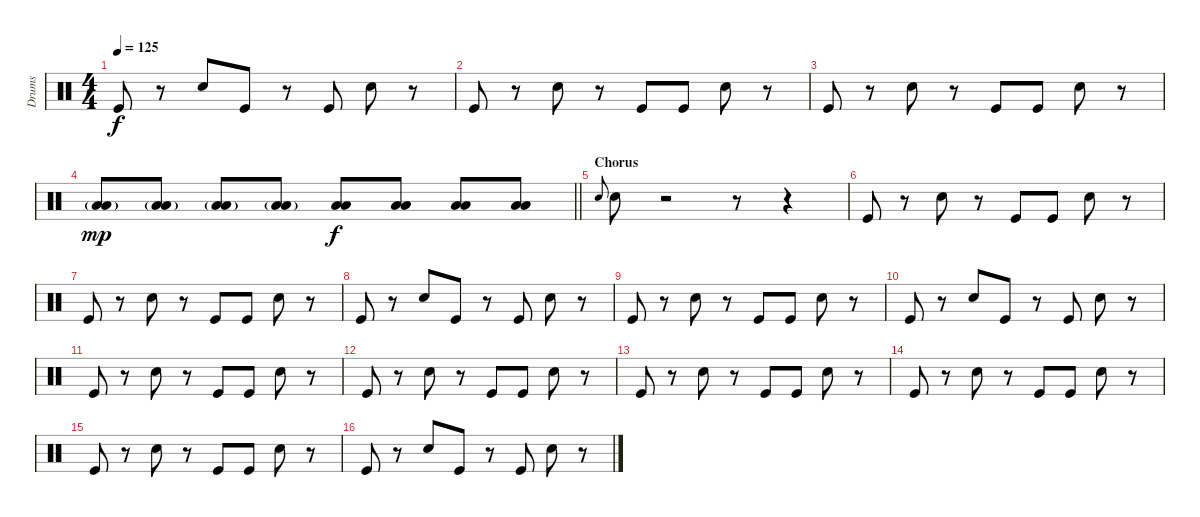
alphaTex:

\track ("Drums" "Drums") {instrument percussion}
\staff {score}
\articulation defaults
\ts (4 4)
\tempo 125
\clef neutral
\ks c "Kick (hit)".8{dy f}
r.8 "Snare (hit) 2".8 "Kick (hit)".8 r.8 "Kick (hit)".8 "Snare (hit) 2".8 r.8 |
"Kick (hit)".8 r.8 "Snare (hit) 2".8 r.8 "Kick (hit)".8 "Kick (hit)".8 "Snare (hit) 2".8 r.8 |
"Kick (hit)".8 r.8 "Snare (hit) 2".8 r.8 "Kick (hit)".8 "Kick (hit)".8 "Snare (hit) 2".8 r.8 |
\barLineRight lightlight
("Low Floor Tom (hit)"{g} "Low Tom (hit)"{g}).8{dy mp} ("Low Floor Tom (hit)"{g} "Low Tom (hit)"{g}).8 ("Low Floor Tom (hit)"{g} "Low Tom (hit)"{g}).8 ("Low Floor Tom (hit)"{g} "Low Tom (hit)"{g}).8 ("Low Floor Tom (hit)" "Low Tom (hit)").8{dy f} ("Low Floor Tom (hit)" "Low Tom (hit)").8 ("Low Floor Tom (hit)" "Low Tom (hit)").8 ("Low Floor Tom (hit)" "Low Tom (hit)").8 |
\section ("" "Chorus")
"Snare (hit) 2".8{gr onbeat} "Snare (hit) 2".8 r.2 r.8 r.4 |
"Kick (hit)".8 r.8 "Snare (hit) 2".8 r.8 "Kick (hit)".8 "Kick (hit)".8 "Snare (hit) 2".8 r.8 |
"Kick (hit)".8 r.8 "Snare (hit) 2".8 r.8 "Kick (hit)".8 "Kick (hit)".8 "Snare (hit) 2".8 r.8 |
"Kick (hit)".8 r.8 "Snare (hit) 2".8 "Kick (hit)".8 r.8 "Kick (hit)".8 "Snare (hit) 2".8 r.8 |
"Kick (hit)".8 r.8 "Snare (hit) 2".8 r.8 "Kick (hit)".8 "Kick (hit)".8 "Snare (hit) 2".8 r.8 |
"Kick (hit)".8 r.8 "Snare (hit) 2".8 "Kick (hit)".8 r.8 "Kick (hit)".8 "Snare (hit) 2".8 r.8 |
"Kick (hit)".8 r.8 "Snare (hit) 2".8 r.8 "Kick (hit)".8 "Kick (hit)".8 "Snare (hit) 2".8 r.8 |
"Kick (hit)".8 r.8 "Snare (hit) 2".8 r.8 "Kick (hit)".8 "Kick (hit)".8 "Snare (hit) 2".8 r.8 |
"Kick (hit)".8 r.8 "Snare (hit) 2".8 r.8 "Kick (hit)".8 "Kick (hit)".8 "Snare (hit) 2".8 r.8 |
"Kick (hit)".8 r.8 "Snare (hit) 2".8 r.8 "Kick (hit)".8 "Kick (hit)".8 "Snare (hit) 2".8 r.8 |
"Kick (hit)".8 r.8 "Snare (hit) 2".8 r.8 "Kick (hit)".8 "Kick (hit)".8 "Snare (hit) 2".8 r.8 |
"Kick (hit)".8 r.8 "Snare (hit) 2".8 "Kick (hit)".8 r.8 "Kick (hit)".8 "Snare (hit) 2".8 r.8
